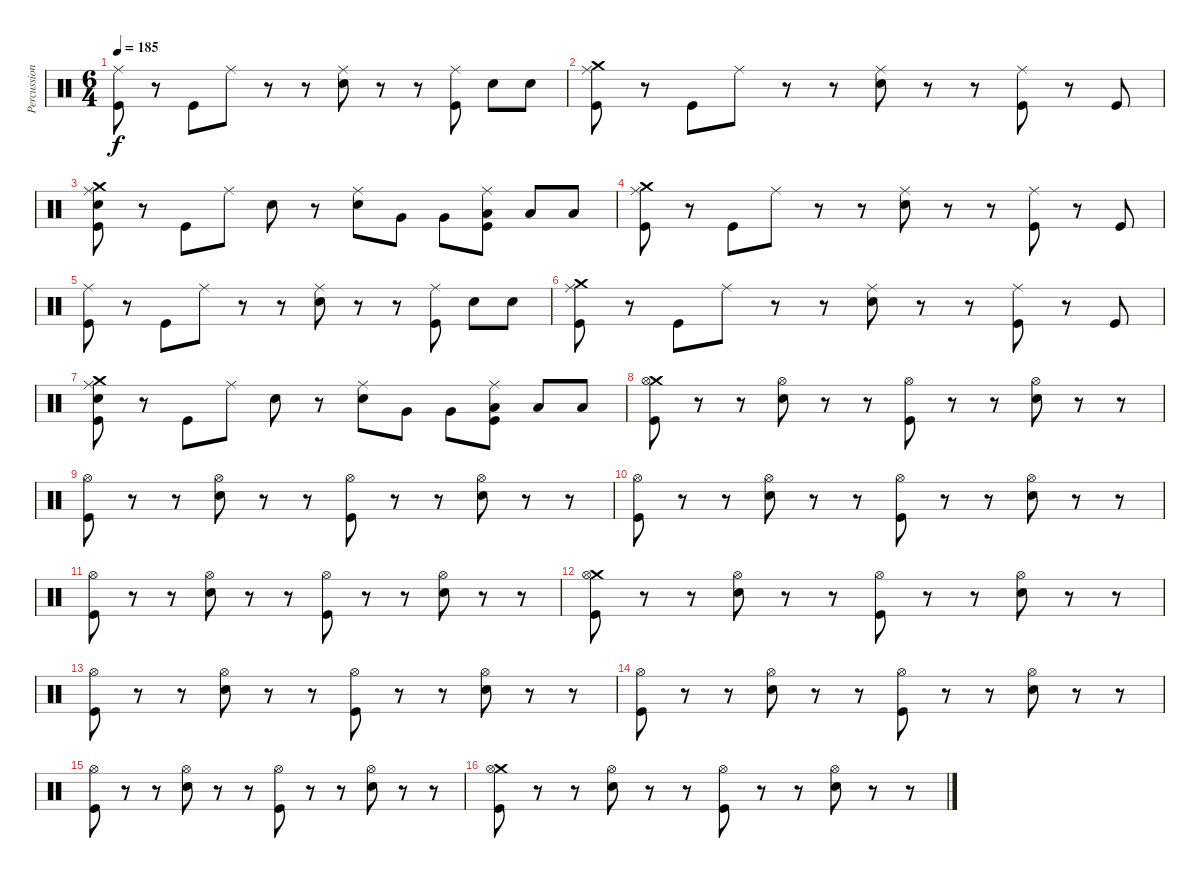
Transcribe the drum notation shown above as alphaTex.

\track ("Percussion" "Percussion") {instrument percussion}
\staff {score}
\articulation defaults
\ts (6 4)
\tempo 185
\clef neutral
\ks c
("Ride (middle)" "Kick (hit)").8{dy f} r.8 "Kick (hit)".8 "Ride (middle)".8 r.8 r.8 ("Ride (middle)" "Electric Snare (hit)").8 r.8 r.8 ("Ride (middle)" "Kick (hit)").8 "Electric Snare (hit)".8 "Electric Snare (hit)".8 |
("Crash medium (hit)" "Ride (middle)" "Kick (hit)").8 r.8 "Kick (hit)".8 "Ride (middle)".8 r.8 r.8 ("Ride (middle)" "Electric Snare (hit)").8 r.8 r.8 ("Ride (middle)" "Kick (hit)").8 r.8 "Kick (hit)".8 |
("Crash medium (hit)" "Ride (middle)" "Electric Snare (hit)" "Kick (hit)").8 r.8 "Kick (hit)".8 "Ride (middle)".8 "Electric Snare (hit)".8 r.8 ("Ride (middle)" "Electric Snare (hit)").8 "Very Low Tom (hit)".8 "Very Low Tom (hit)".8 ("Ride (middle)" "Low Floor Tom (hit)" "Kick (hit)").8 "Low Floor Tom (hit)".8 "Low Floor Tom (hit)".8 |
("Crash medium (hit)" "Ride (middle)" "Kick (hit)").8 r.8 "Kick (hit)".8 "Ride (middle)".8 r.8 r.8 ("Ride (middle)" "Electric Snare (hit)").8 r.8 r.8 ("Ride (middle)" "Kick (hit)").8 r.8 "Kick (hit)".8 |
("Ride (middle)" "Kick (hit)").8 r.8 "Kick (hit)".8 "Ride (middle)".8 r.8 r.8 ("Ride (middle)" "Electric Snare (hit)").8 r.8 r.8 ("Ride (middle)" "Kick (hit)").8 "Electric Snare (hit)".8 "Electric Snare (hit)".8 |
("Crash medium (hit)" "Ride (middle)" "Kick (hit)").8 r.8 "Kick (hit)".8 "Ride (middle)".8 r.8 r.8 ("Ride (middle)" "Electric Snare (hit)").8 r.8 r.8 ("Ride (middle)" "Kick (hit)").8 r.8 "Kick (hit)".8 |
("Crash medium (hit)" "Ride (middle)" "Electric Snare (hit)" "Kick (hit)").8 r.8 "Kick (hit)".8 "Ride (middle)".8 "Electric Snare (hit)".8 r.8 ("Ride (middle)" "Electric Snare (hit)").8 "Very Low Tom (hit)".8 "Very Low Tom (hit)".8 ("Ride (middle)" "Low Floor Tom (hit)" "Kick (hit)").8 "Low Floor Tom (hit)".8 "Low Floor Tom (hit)".8 |
("Crash medium (hit)" "Hi-Hat (open)" "Kick (hit)").8 r.8 r.8 ("Electric Snare (hit)" "Hi-Hat (open)").8 r.8 r.8 ("Hi-Hat (open)" "Kick (hit)").8 r.8 r.8 ("Electric Snare (hit)" "Hi-Hat (open)").8 r.8 r.8 |
("Hi-Hat (open)" "Kick (hit)").8 r.8 r.8 ("Electric Snare (hit)" "Hi-Hat (open)").8 r.8 r.8 ("Hi-Hat (open)" "Kick (hit)").8 r.8 r.8 ("Electric Snare (hit)" "Hi-Hat (open)").8 r.8 r.8 |
("Hi-Hat (open)" "Kick (hit)").8 r.8 r.8 ("Electric Snare (hit)" "Hi-Hat (open)").8 r.8 r.8 ("Hi-Hat (open)" "Kick (hit)").8 r.8 r.8 ("Electric Snare (hit)" "Hi-Hat (open)").8 r.8 r.8 |
("Hi-Hat (open)" "Kick (hit)").8 r.8 r.8 ("Electric Snare (hit)" "Hi-Hat (open)").8 r.8 r.8 ("Hi-Hat (open)" "Kick (hit)").8 r.8 r.8 ("Electric Snare (hit)" "Hi-Hat (open)").8 r.8 r.8 |
("Crash medium (hit)" "Hi-Hat (open)" "Kick (hit)").8 r.8 r.8 ("Electric Snare (hit)" "Hi-Hat (open)").8 r.8 r.8 ("Hi-Hat (open)" "Kick (hit)").8 r.8 r.8 ("Electric Snare (hit)" "Hi-Hat (open)").8 r.8 r.8 |
("Hi-Hat (open)" "Kick (hit)").8 r.8 r.8 ("Electric Snare (hit)" "Hi-Hat (open)").8 r.8 r.8 ("Hi-Hat (open)" "Kick (hit)").8 r.8 r.8 ("Electric Snare (hit)" "Hi-Hat (open)").8 r.8 r.8 |
("Hi-Hat (open)" "Kick (hit)").8 r.8 r.8 ("Electric Snare (hit)" "Hi-Hat (open)").8 r.8 r.8 ("Hi-Hat (open)" "Kick (hit)").8 r.8 r.8 ("Electric Snare (hit)" "Hi-Hat (open)").8 r.8 r.8 |
("Hi-Hat (open)" "Kick (hit)").8 r.8 r.8 ("Electric Snare (hit)" "Hi-Hat (open)").8 r.8 r.8 ("Hi-Hat (open)" "Kick (hit)").8 r.8 r.8 ("Electric Snare (hit)" "Hi-Hat (open)").8 r.8 r.8 |
("Crash medium (hit)" "Hi-Hat (open)" "Kick (hit)").8 r.8 r.8 ("Electric Snare (hit)" "Hi-Hat (open)").8 r.8 r.8 ("Hi-Hat (open)" "Kick (hit)").8 r.8 r.8 ("Electric Snare (hit)" "Hi-Hat (open)").8 r.8 r.8
